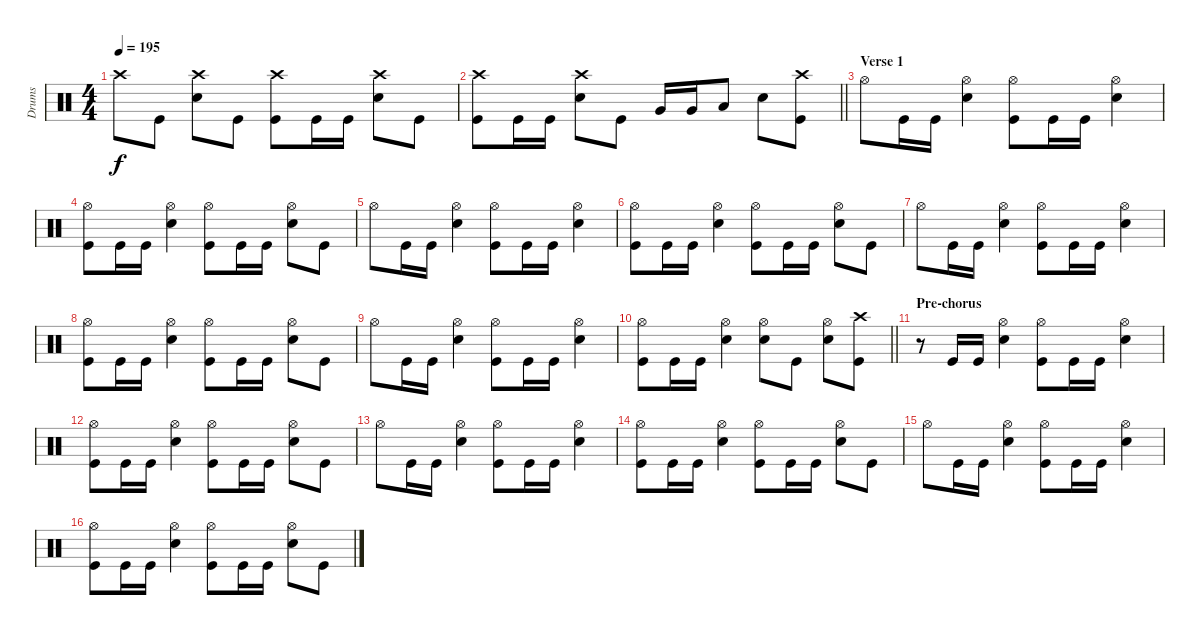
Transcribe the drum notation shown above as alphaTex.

\track ("Drums" "Drums") {instrument percussion}
\staff {score}
\articulation defaults
\ts (4 4)
\tempo 195
\clef neutral
\ks c "Crash high (hit)".8{dy f} "Kick (hit)".8
("Snare (hit) 2" "Crash high (hit)").8 "Kick (hit)".8 ("Kick (hit)" "Crash high (hit)").8 "Kick (hit)".16 "Kick (hit)".16 ("Snare (hit) 2" "Crash high (hit)").8 "Kick (hit)".8 |
\barLineRight lightlight
("Kick (hit)" "Crash high (hit)").8 "Kick (hit)".16 "Kick (hit)".16 ("Snare (hit) 2" "Crash high (hit)").8 "Kick (hit)".8 "Very Low Tom (hit)".16 "Very Low Tom (hit)".16 "Low Floor Tom (hit)".8 "Snare (hit) 2".8 ("Kick (hit)" "Crash high (hit)").8 |
\section ("" "Verse 1")
"Hi-Hat (open)".8 "Kick (hit)".16 "Kick (hit)".16 ("Snare (hit) 2" "Hi-Hat (open)").4 ("Kick (hit)" "Hi-Hat (open)").8 "Kick (hit)".16 "Kick (hit)".16 ("Snare (hit) 2" "Hi-Hat (open)").4 |
("Kick (hit)" "Hi-Hat (open)").8 "Kick (hit)".16 "Kick (hit)".16 ("Snare (hit) 2" "Hi-Hat (open)").4 ("Kick (hit)" "Hi-Hat (open)").8 "Kick (hit)".16 "Kick (hit)".16 ("Snare (hit) 2" "Hi-Hat (open)").8 "Kick (hit)".8 |
"Hi-Hat (open)".8 "Kick (hit)".16 "Kick (hit)".16 ("Snare (hit) 2" "Hi-Hat (open)").4 ("Kick (hit)" "Hi-Hat (open)").8 "Kick (hit)".16 "Kick (hit)".16 ("Snare (hit) 2" "Hi-Hat (open)").4 |
("Kick (hit)" "Hi-Hat (open)").8 "Kick (hit)".16 "Kick (hit)".16 ("Snare (hit) 2" "Hi-Hat (open)").4 ("Kick (hit)" "Hi-Hat (open)").8 "Kick (hit)".16 "Kick (hit)".16 ("Snare (hit) 2" "Hi-Hat (open)").8 "Kick (hit)".8 |
"Hi-Hat (open)".8 "Kick (hit)".16 "Kick (hit)".16 ("Snare (hit) 2" "Hi-Hat (open)").4 ("Kick (hit)" "Hi-Hat (open)").8 "Kick (hit)".16 "Kick (hit)".16 ("Snare (hit) 2" "Hi-Hat (open)").4 |
("Kick (hit)" "Hi-Hat (open)").8 "Kick (hit)".16 "Kick (hit)".16 ("Snare (hit) 2" "Hi-Hat (open)").4 ("Kick (hit)" "Hi-Hat (open)").8 "Kick (hit)".16 "Kick (hit)".16 ("Snare (hit) 2" "Hi-Hat (open)").8 "Kick (hit)".8 |
"Hi-Hat (open)".8 "Kick (hit)".16 "Kick (hit)".16 ("Snare (hit) 2" "Hi-Hat (open)").4 ("Kick (hit)" "Hi-Hat (open)").8 "Kick (hit)".16 "Kick (hit)".16 ("Snare (hit) 2" "Hi-Hat (open)").4 |
\barLineRight lightlight
("Kick (hit)" "Hi-Hat (open)").8 "Kick (hit)".16 "Kick (hit)".16 ("Snare (hit) 2" "Hi-Hat (open)").4 ("Hi-Hat (open)" "Snare (hit) 2").8 "Kick (hit)".8 ("Snare (hit) 2" "Hi-Hat (open)").8 ("Kick (hit)" "Crash high (hit)").8 |
\section ("" "Pre-chorus")
r.8 "Kick (hit)".16 "Kick (hit)".16 ("Snare (hit) 2" "Hi-Hat (open)").4 ("Kick (hit)" "Hi-Hat (open)").8 "Kick (hit)".16 "Kick (hit)".16 ("Snare (hit) 2" "Hi-Hat (open)").4 |
("Kick (hit)" "Hi-Hat (open)").8 "Kick (hit)".16 "Kick (hit)".16 ("Snare (hit) 2" "Hi-Hat (open)").4 ("Kick (hit)" "Hi-Hat (open)").8 "Kick (hit)".16 "Kick (hit)".16 ("Snare (hit) 2" "Hi-Hat (open)").8 "Kick (hit)".8 |
"Hi-Hat (open)".8 "Kick (hit)".16 "Kick (hit)".16 ("Snare (hit) 2" "Hi-Hat (open)").4 ("Kick (hit)" "Hi-Hat (open)").8 "Kick (hit)".16 "Kick (hit)".16 ("Snare (hit) 2" "Hi-Hat (open)").4 |
("Kick (hit)" "Hi-Hat (open)").8 "Kick (hit)".16 "Kick (hit)".16 ("Snare (hit) 2" "Hi-Hat (open)").4 ("Kick (hit)" "Hi-Hat (open)").8 "Kick (hit)".16 "Kick (hit)".16 ("Snare (hit) 2" "Hi-Hat (open)").8 "Kick (hit)".8 |
"Hi-Hat (open)".8 "Kick (hit)".16 "Kick (hit)".16 ("Snare (hit) 2" "Hi-Hat (open)").4 ("Kick (hit)" "Hi-Hat (open)").8 "Kick (hit)".16 "Kick (hit)".16 ("Snare (hit) 2" "Hi-Hat (open)").4 |
("Kick (hit)" "Hi-Hat (open)").8 "Kick (hit)".16 "Kick (hit)".16 ("Snare (hit) 2" "Hi-Hat (open)").4 ("Kick (hit)" "Hi-Hat (open)").8 "Kick (hit)".16 "Kick (hit)".16 ("Snare (hit) 2" "Hi-Hat (open)").8 "Kick (hit)".8
